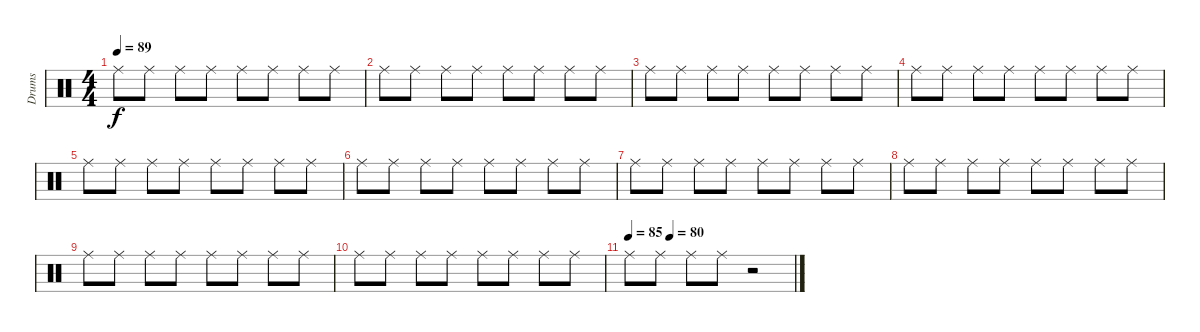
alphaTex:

\track ("Drums" "Drums") {instrument percussion}
\staff {score}
\articulation defaults
\ts (4 4)
\tempo 89
\clef neutral
\ks c "Ride (middle)".8{dy f} "Ride (middle)".8 "Ride (middle)".8 "Ride (middle)".8 "Ride (middle)".8 "Ride (middle)".8 "Ride (middle)".8 "Ride (middle)".8
|
"Ride (middle)".8 "Ride (middle)".8 "Ride (middle)".8 "Ride (middle)".8 "Ride (middle)".8 "Ride (middle)".8 "Ride (middle)".8 "Ride (middle)".8 |
"Ride (middle)".8 "Ride (middle)".8 "Ride (middle)".8 "Ride (middle)".8 "Ride (middle)".8 "Ride (middle)".8 "Ride (middle)".8 "Ride (middle)".8 |
"Ride (middle)".8 "Ride (middle)".8 "Ride (middle)".8 "Ride (middle)".8 "Ride (middle)".8 "Ride (middle)".8 "Ride (middle)".8 "Ride (middle)".8 |
"Ride (middle)".8 "Ride (middle)".8 "Ride (middle)".8 "Ride (middle)".8 "Ride (middle)".8 "Ride (middle)".8 "Ride (middle)".8 "Ride (middle)".8 |
"Ride (middle)".8 "Ride (middle)".8 "Ride (middle)".8 "Ride (middle)".8 "Ride (middle)".8 "Ride (middle)".8 "Ride (middle)".8 "Ride (middle)".8 |
"Ride (middle)".8 "Ride (middle)".8 "Ride (middle)".8 "Ride (middle)".8 "Ride (middle)".8 "Ride (middle)".8 "Ride (middle)".8 "Ride (middle)".8 |
"Ride (middle)".8 "Ride (middle)".8 "Ride (middle)".8 "Ride (middle)".8 "Ride (middle)".8 "Ride (middle)".8 "Ride (middle)".8 "Ride (middle)".8 |
"Ride (middle)".8 "Ride (middle)".8 "Ride (middle)".8 "Ride (middle)".8 "Ride (middle)".8 "Ride (middle)".8 "Ride (middle)".8 "Ride (middle)".8 |
"Ride (middle)".8 "Ride (middle)".8 "Ride (middle)".8 "Ride (middle)".8 "Ride (middle)".8 "Ride (middle)".8 "Ride (middle)".8 "Ride (middle)".8 |
\tempo 85
\tempo (80 0.25)
"Ride (middle)".8 "Ride (middle)".8 "Ride (middle)".8 "Ride (middle)".8 r.2
